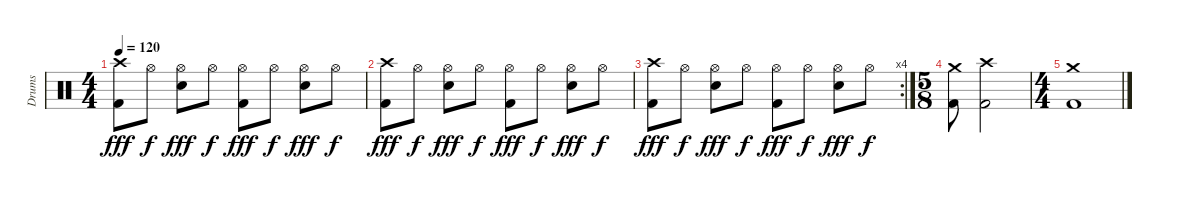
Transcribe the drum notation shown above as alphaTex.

\track ("Drums" "Drums") {instrument percussion}
\staff {score}
\articulation defaults
\ts (4 4)
\tempo 120
\clef neutral
\ks c
("Crash high (hit)" "Kick (hit) 2").8{dy fff} "Hi-Hat (open)".8{dy f} ("Hi-Hat (open)" "Electric Snare (hit)").8{dy fff} "Hi-Hat (open)".8{dy f} ("Hi-Hat (open)" "Kick (hit) 2").8{dy fff} "Hi-Hat (open)".8{dy f} ("Hi-Hat (open)" "Electric Snare (hit)").8{dy fff} "Hi-Hat (open)".8{dy f} |
("Crash high (hit)" "Kick (hit) 2").8{dy fff} "Hi-Hat (open)".8{dy f} ("Hi-Hat (open)" "Electric Snare (hit)").8{dy fff} "Hi-Hat (open)".8{dy f} ("Hi-Hat (open)" "Kick (hit) 2").8{dy fff} "Hi-Hat (open)".8{dy f} ("Hi-Hat (open)" "Electric Snare (hit)").8{dy fff} "Hi-Hat (open)".8{dy f} |
\rc 4
("Crash high (hit)" "Kick (hit) 2").8{dy fff} "Hi-Hat (open)".8{dy f} ("Hi-Hat (open)" "Electric Snare (hit)").8{dy fff} "Hi-Hat (open)".8{dy f} ("Hi-Hat (open)" "Kick (hit) 2").8{dy fff} "Hi-Hat (open)".8{dy f} ("Hi-Hat (open)" "Electric Snare (hit)").8{dy fff} "Hi-Hat (open)".8{dy f} |
\ts (5 8)
("Crash medium (hit)" "Kick (hit) 2").8 ("Crash high (hit)" "Kick (hit) 2").2 |
\ts (4 4)
("Crash medium (hit)" "Kick (hit) 2").1
